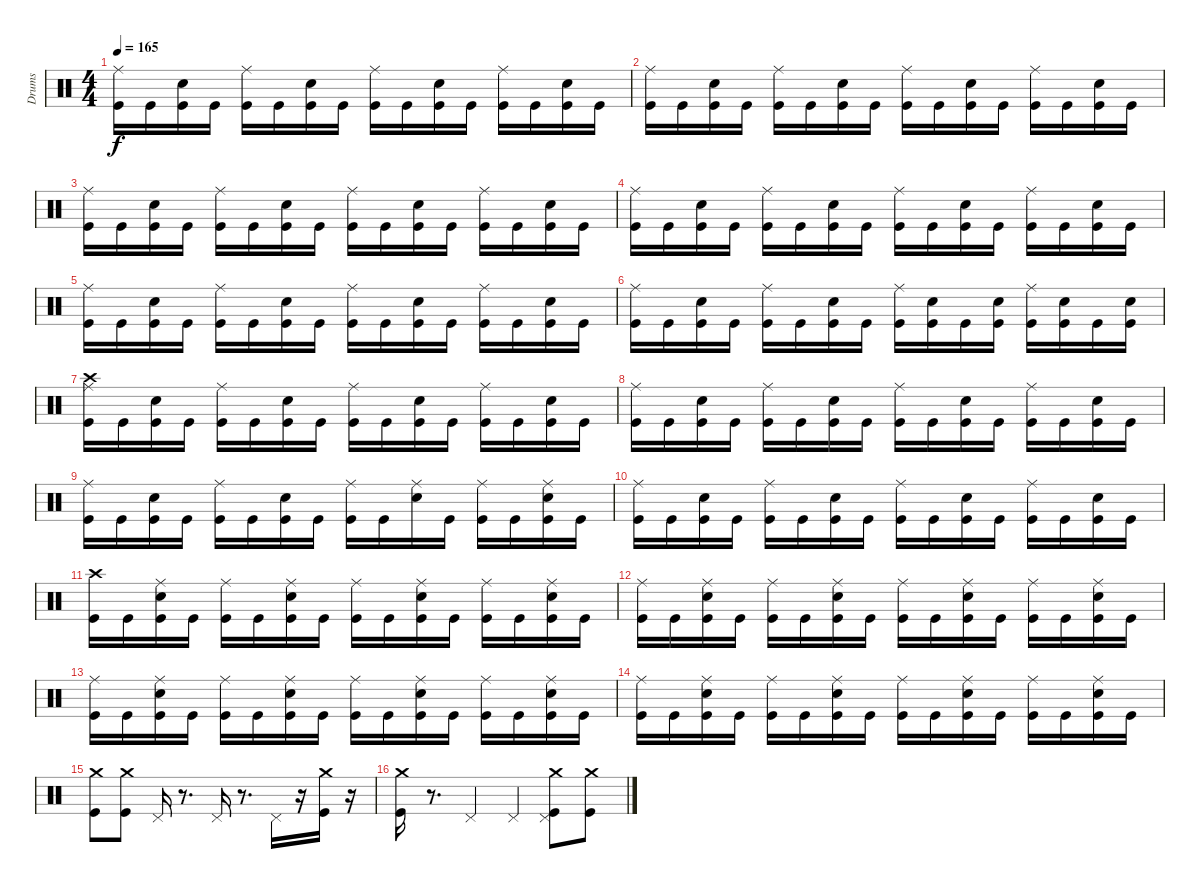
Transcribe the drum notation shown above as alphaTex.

\track ("Drums" "Drums") {instrument percussion}
\staff {score}
\articulation defaults
\ts (4 4)
\tempo 165
\clef neutral
\ks c
("Ride (middle)" "Kick (hit)").16{dy f} "Kick (hit)".16 ("Electric Snare (hit)" "Kick (hit)").16 "Kick (hit)".16 ("Ride (middle)" "Kick (hit)").16 "Kick (hit)".16 ("Electric Snare (hit)" "Kick (hit)").16 "Kick (hit)".16 ("Ride (middle)" "Kick (hit)").16 "Kick (hit)".16 ("Electric Snare (hit)" "Kick (hit)").16 "Kick (hit)".16 ("Ride (middle)" "Kick (hit)").16 "Kick (hit)".16 ("Electric Snare (hit)" "Kick (hit)").16 "Kick (hit)".16 |
("Ride (middle)" "Kick (hit)").16 "Kick (hit)".16 ("Electric Snare (hit)" "Kick (hit)").16 "Kick (hit)".16 ("Ride (middle)" "Kick (hit)").16 "Kick (hit)".16 ("Electric Snare (hit)" "Kick (hit)").16 "Kick (hit)".16 ("Ride (middle)" "Kick (hit)").16 "Kick (hit)".16 ("Electric Snare (hit)" "Kick (hit)").16 "Kick (hit)".16 ("Ride (middle)" "Kick (hit)").16 "Kick (hit)".16 ("Electric Snare (hit)" "Kick (hit)").16 "Kick (hit)".16 |
("Ride (middle)" "Kick (hit)").16 "Kick (hit)".16 ("Electric Snare (hit)" "Kick (hit)").16 "Kick (hit)".16 ("Ride (middle)" "Kick (hit)").16 "Kick (hit)".16 ("Electric Snare (hit)" "Kick (hit)").16 "Kick (hit)".16 ("Ride (middle)" "Kick (hit)").16 "Kick (hit)".16 ("Electric Snare (hit)" "Kick (hit)").16 "Kick (hit)".16 ("Ride (middle)" "Kick (hit)").16 "Kick (hit)".16 ("Electric Snare (hit)" "Kick (hit)").16 "Kick (hit)".16 |
("Ride (middle)" "Kick (hit)").16 "Kick (hit)".16 ("Electric Snare (hit)" "Kick (hit)").16 "Kick (hit)".16 ("Ride (middle)" "Kick (hit)").16 "Kick (hit)".16 ("Electric Snare (hit)" "Kick (hit)").16 "Kick (hit)".16 ("Ride (middle)" "Kick (hit)").16 "Kick (hit)".16 ("Electric Snare (hit)" "Kick (hit)").16 "Kick (hit)".16 ("Ride (middle)" "Kick (hit)").16 "Kick (hit)".16 ("Electric Snare (hit)" "Kick (hit)").16 "Kick (hit)".16 |
("Ride (middle)" "Kick (hit)").16 "Kick (hit)".16 ("Electric Snare (hit)" "Kick (hit)").16 "Kick (hit)".16 ("Ride (middle)" "Kick (hit)").16 "Kick (hit)".16 ("Electric Snare (hit)" "Kick (hit)").16 "Kick (hit)".16 ("Ride (middle)" "Kick (hit)").16 "Kick (hit)".16 ("Electric Snare (hit)" "Kick (hit)").16 "Kick (hit)".16 ("Ride (middle)" "Kick (hit)").16 "Kick (hit)".16 ("Electric Snare (hit)" "Kick (hit)").16 "Kick (hit)".16 |
("Ride (middle)" "Kick (hit)").16 "Kick (hit)".16 ("Electric Snare (hit)" "Kick (hit)").16 "Kick (hit)".16 ("Ride (middle)" "Kick (hit)").16 "Kick (hit)".16 ("Electric Snare (hit)" "Kick (hit)").16 "Kick (hit)".16 ("Ride (middle)" "Kick (hit)").16 ("Electric Snare (hit)" "Kick (hit)").16 "Kick (hit)".16 ("Electric Snare (hit)" "Kick (hit)").16 ("Ride (middle)" "Kick (hit)").16 ("Electric Snare (hit)" "Kick (hit)").16 "Kick (hit)".16 ("Electric Snare (hit)" "Kick (hit)").16 |
("Crash high (hit)" "Ride (middle)" "Kick (hit)").16 "Kick (hit)".16 ("Electric Snare (hit)" "Kick (hit)").16 "Kick (hit)".16 ("Ride (middle)" "Kick (hit)").16 "Kick (hit)".16 ("Electric Snare (hit)" "Kick (hit)").16 "Kick (hit)".16 ("Ride (middle)" "Kick (hit)").16 "Kick (hit)".16 ("Electric Snare (hit)" "Kick (hit)").16 "Kick (hit)".16 ("Ride (middle)" "Kick (hit)").16 "Kick (hit)".16 ("Electric Snare (hit)" "Kick (hit)").16 "Kick (hit)".16 |
("Ride (middle)" "Kick (hit)").16 "Kick (hit)".16 ("Electric Snare (hit)" "Kick (hit)").16 "Kick (hit)".16 ("Ride (middle)" "Kick (hit)").16 "Kick (hit)".16 ("Electric Snare (hit)" "Kick (hit)").16 "Kick (hit)".16 ("Ride (middle)" "Kick (hit)").16 "Kick (hit)".16 ("Electric Snare (hit)" "Kick (hit)").16 "Kick (hit)".16 ("Ride (middle)" "Kick (hit)").16 "Kick (hit)".16 ("Electric Snare (hit)" "Kick (hit)").16 "Kick (hit)".16 |
("Ride (middle)" "Kick (hit)").16 "Kick (hit)".16 ("Electric Snare (hit)" "Kick (hit)").16 "Kick (hit)".16 ("Ride (middle)" "Kick (hit)").16 "Kick (hit)".16 ("Electric Snare (hit)" "Kick (hit)").16 "Kick (hit)".16 ("Ride (middle)" "Kick (hit)").16 "Kick (hit)".16 ("Ride (middle)" "Electric Snare (hit)").16 "Kick (hit)".16 ("Ride (middle)" "Kick (hit)").16 "Kick (hit)".16 ("Ride (middle)" "Electric Snare (hit)" "Kick (hit)").16 "Kick (hit)".16 |
("Ride (middle)" "Kick (hit)").16 "Kick (hit)".16 ("Electric Snare (hit)" "Kick (hit)").16 "Kick (hit)".16 ("Ride (middle)" "Kick (hit)").16 "Kick (hit)".16 ("Electric Snare (hit)" "Kick (hit)").16 "Kick (hit)".16 ("Ride (middle)" "Kick (hit)").16 "Kick (hit)".16 ("Electric Snare (hit)" "Kick (hit)").16 "Kick (hit)".16 ("Ride (middle)" "Kick (hit)").16 "Kick (hit)".16 ("Electric Snare (hit)" "Kick (hit)").16 "Kick (hit)".16 |
("Kick (hit)" "Crash high (hit)").16{volume 14 balance 8} "Kick (hit)".16 ("Ride (middle)" "Kick (hit)" "Electric Snare (hit)").16 "Kick (hit)".16 ("Ride (middle)" "Kick (hit)").16 "Kick (hit)".16 ("Ride (middle)" "Electric Snare (hit)" "Kick (hit)").16 "Kick (hit)".16 ("Ride (middle)" "Kick (hit)").16 "Kick (hit)".16 ("Ride (middle)" "Kick (hit)" "Electric Snare (hit)").16 "Kick (hit)".16 ("Ride (middle)" "Kick (hit)").16 "Kick (hit)".16 ("Ride (middle)" "Kick (hit)" "Electric Snare (hit)").16 "Kick (hit)".16 |
("Ride (middle)" "Kick (hit)").16 "Kick (hit)".16 ("Ride (middle)" "Electric Snare (hit)" "Kick (hit)").16 "Kick (hit)".16 ("Ride (middle)" "Kick (hit)").16 "Kick (hit)".16 ("Ride (middle)" "Electric Snare (hit)" "Kick (hit)").16 "Kick (hit)".16 ("Ride (middle)" "Kick (hit)").16 "Kick (hit)".16 ("Ride (middle)" "Electric Snare (hit)" "Kick (hit)").16 "Kick (hit)".16 ("Ride (middle)" "Kick (hit)").16 "Kick (hit)".16 ("Ride (middle)" "Electric Snare (hit)" "Kick (hit)").16 "Kick (hit)".16 |
("Ride (middle)" "Kick (hit)").16 "Kick (hit)".16 ("Ride (middle)" "Electric Snare (hit)" "Kick (hit)").16 "Kick (hit)".16 ("Ride (middle)" "Kick (hit)").16 "Kick (hit)".16 ("Ride (middle)" "Electric Snare (hit)" "Kick (hit)").16 "Kick (hit)".16 ("Ride (middle)" "Kick (hit)").16 "Kick (hit)".16 ("Ride (middle)" "Electric Snare (hit)" "Kick (hit)").16 "Kick (hit)".16 ("Ride (middle)" "Kick (hit)").16 "Kick (hit)".16 ("Ride (middle)" "Electric Snare (hit)" "Kick (hit)").16 "Kick (hit)".16 |
("Ride (middle)" "Kick (hit)").16 "Kick (hit)".16 ("Ride (middle)" "Electric Snare (hit)" "Kick (hit)").16 "Kick (hit)".16 ("Ride (middle)" "Kick (hit)").16 "Kick (hit)".16 ("Ride (middle)" "Electric Snare (hit)" "Kick (hit)").16 "Kick (hit)".16 ("Ride (middle)" "Kick (hit)").16 "Kick (hit)".16 ("Ride (middle)" "Electric Snare (hit)" "Kick (hit)").16 "Kick (hit)".16 ("Ride (middle)" "Kick (hit)").16{volume 14 balance 8} "Kick (hit)".16 ("Ride (middle)" "Electric Snare (hit)" "Kick (hit)").16 "Kick (hit)".16 |
("Crash medium (hit)" "Kick (hit)").8 ("Kick (hit)" "Crash medium (hit)").8 "Pedal Hi-Hat (hit)".16 r.8{d} "Pedal Hi-Hat (hit)".16 r.8{d} "Pedal Hi-Hat (hit)".16 r.16 ("Crash medium (hit)" "Kick (hit)").16 r.16 |
("Kick (hit)" "Crash medium (hit)").16 r.8{d} "Pedal Hi-Hat (hit)".4 "Pedal Hi-Hat (hit)".4 ("Pedal Hi-Hat (hit)" "Crash medium (hit)" "Kick (hit)").8 ("Kick (hit)" "Crash medium (hit)").8
